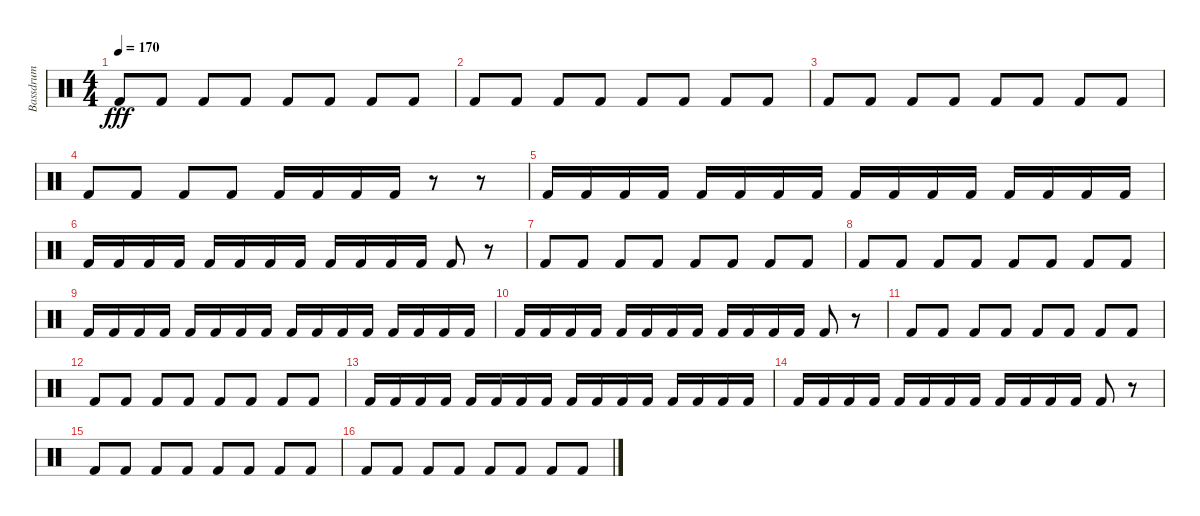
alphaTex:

\track ("Bassdrum" "Bassdrum") {instrument percussion}
\staff {score}
\articulation defaults
\ts (4 4)
\tempo 170
\clef neutral
\ks c "Kick (hit) 2".8{dy fff} "Kick (hit) 2".8 "Kick (hit) 2".8 "Kick (hit) 2".8 "Kick (hit) 2".8 "Kick (hit) 2".8 "Kick (hit) 2".8 "Kick (hit) 2".8
|
"Kick (hit) 2".8 "Kick (hit) 2".8 "Kick (hit) 2".8 "Kick (hit) 2".8 "Kick (hit) 2".8 "Kick (hit) 2".8 "Kick (hit) 2".8 "Kick (hit) 2".8 |
"Kick (hit) 2".8 "Kick (hit) 2".8 "Kick (hit) 2".8 "Kick (hit) 2".8 "Kick (hit) 2".8 "Kick (hit) 2".8 "Kick (hit) 2".8 "Kick (hit) 2".8 |
"Kick (hit) 2".8 "Kick (hit) 2".8 "Kick (hit) 2".8 "Kick (hit) 2".8 "Kick (hit) 2".16 "Kick (hit) 2".16 "Kick (hit) 2".16 "Kick (hit) 2".16 r.8 r.8 |
"Kick (hit) 2".16 "Kick (hit) 2".16 "Kick (hit) 2".16 "Kick (hit) 2".16 "Kick (hit) 2".16 "Kick (hit) 2".16 "Kick (hit) 2".16 "Kick (hit) 2".16 "Kick (hit) 2".16 "Kick (hit) 2".16 "Kick (hit) 2".16 "Kick (hit) 2".16 "Kick (hit) 2".16 "Kick (hit) 2".16 "Kick (hit) 2".16 "Kick (hit) 2".16 |
"Kick (hit) 2".16 "Kick (hit) 2".16 "Kick (hit) 2".16 "Kick (hit) 2".16 "Kick (hit) 2".16 "Kick (hit) 2".16 "Kick (hit) 2".16 "Kick (hit) 2".16 "Kick (hit) 2".16 "Kick (hit) 2".16 "Kick (hit) 2".16 "Kick (hit) 2".16 "Kick (hit) 2".8 r.8 |
"Kick (hit) 2".8 "Kick (hit) 2".8 "Kick (hit) 2".8 "Kick (hit) 2".8 "Kick (hit) 2".8 "Kick (hit) 2".8 "Kick (hit) 2".8 "Kick (hit) 2".8 |
"Kick (hit) 2".8 "Kick (hit) 2".8 "Kick (hit) 2".8 "Kick (hit) 2".8 "Kick (hit) 2".8 "Kick (hit) 2".8 "Kick (hit) 2".8 "Kick (hit) 2".8 |
"Kick (hit) 2".16 "Kick (hit) 2".16 "Kick (hit) 2".16 "Kick (hit) 2".16 "Kick (hit) 2".16 "Kick (hit) 2".16 "Kick (hit) 2".16 "Kick (hit) 2".16 "Kick (hit) 2".16 "Kick (hit) 2".16 "Kick (hit) 2".16 "Kick (hit) 2".16 "Kick (hit) 2".16 "Kick (hit) 2".16 "Kick (hit) 2".16 "Kick (hit) 2".16 |
"Kick (hit) 2".16 "Kick (hit) 2".16 "Kick (hit) 2".16 "Kick (hit) 2".16 "Kick (hit) 2".16 "Kick (hit) 2".16 "Kick (hit) 2".16 "Kick (hit) 2".16 "Kick (hit) 2".16 "Kick (hit) 2".16 "Kick (hit) 2".16 "Kick (hit) 2".16 "Kick (hit) 2".8 r.8 |
"Kick (hit) 2".8 "Kick (hit) 2".8 "Kick (hit) 2".8 "Kick (hit) 2".8 "Kick (hit) 2".8 "Kick (hit) 2".8 "Kick (hit) 2".8 "Kick (hit) 2".8 |
"Kick (hit) 2".8 "Kick (hit) 2".8 "Kick (hit) 2".8 "Kick (hit) 2".8 "Kick (hit) 2".8 "Kick (hit) 2".8 "Kick (hit) 2".8 "Kick (hit) 2".8 |
"Kick (hit) 2".16 "Kick (hit) 2".16 "Kick (hit) 2".16 "Kick (hit) 2".16 "Kick (hit) 2".16 "Kick (hit) 2".16 "Kick (hit) 2".16 "Kick (hit) 2".16 "Kick (hit) 2".16 "Kick (hit) 2".16 "Kick (hit) 2".16 "Kick (hit) 2".16 "Kick (hit) 2".16 "Kick (hit) 2".16 "Kick (hit) 2".16 "Kick (hit) 2".16 |
"Kick (hit) 2".16 "Kick (hit) 2".16 "Kick (hit) 2".16 "Kick (hit) 2".16 "Kick (hit) 2".16 "Kick (hit) 2".16 "Kick (hit) 2".16 "Kick (hit) 2".16 "Kick (hit) 2".16 "Kick (hit) 2".16 "Kick (hit) 2".16 "Kick (hit) 2".16 "Kick (hit) 2".8 r.8 |
"Kick (hit) 2".8 "Kick (hit) 2".8 "Kick (hit) 2".8 "Kick (hit) 2".8 "Kick (hit) 2".8 "Kick (hit) 2".8 "Kick (hit) 2".8 "Kick (hit) 2".8 |
"Kick (hit) 2".8 "Kick (hit) 2".8 "Kick (hit) 2".8 "Kick (hit) 2".8 "Kick (hit) 2".8 "Kick (hit) 2".8 "Kick (hit) 2".8 "Kick (hit) 2".8
